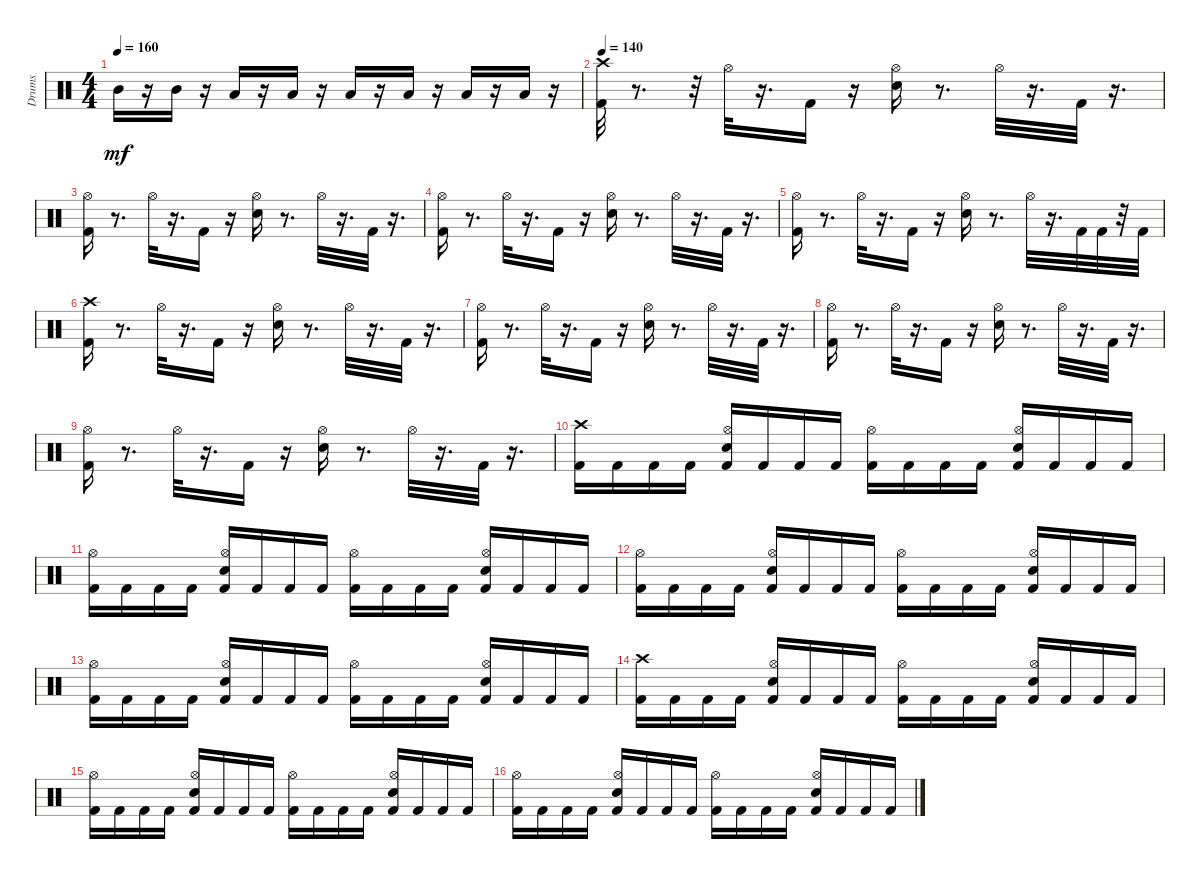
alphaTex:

\track ("Drums               " "Drums     ") {instrument percussion}
\staff {score}
\articulation defaults
\ts (4 4)
\tempo 160
\clef neutral
\ks c "Mid Tom (hit)".16{dy mf}
r.16 "Mid Tom (hit)".16 r.16 "Low Floor Tom (hit)".16 r.16 "Low Floor Tom (hit)".16 r.16 "Low Tom (hit)".16 r.16 "Low Tom (hit)".16 r.16 "Low Tom (hit)".16 r.16 "Low Floor Tom (hit)".16 r.16 |
\tempo 140
("Kick (hit) 2" "Crash high (hit)").32 r.8{d} r.32 "Hi-Hat (open)".32 r.16{d} "Kick (hit) 2".16 r.16 ("Hi-Hat (open)" "Snare (hit) 2").16 r.8{d} "Hi-Hat (open)".32 r.16{d} "Kick (hit) 2".32 r.16{d} |
("Kick (hit) 2" "Hi-Hat (open)").16 r.8{d} "Hi-Hat (open)".32 r.16{d} "Kick (hit) 2".16 r.16 ("Hi-Hat (open)" "Snare (hit) 2").16 r.8{d} "Hi-Hat (open)".32 r.16{d} "Kick (hit) 2".32 r.16{d} |
("Kick (hit) 2" "Hi-Hat (open)").16 r.8{d} "Hi-Hat (open)".32 r.16{d} "Kick (hit) 2".16 r.16 ("Hi-Hat (open)" "Snare (hit) 2").16 r.8{d} "Hi-Hat (open)".32 r.16{d} "Kick (hit) 2".32 r.16{d} |
("Kick (hit) 2" "Hi-Hat (open)").16 r.8{d} "Hi-Hat (open)".32 r.16{d} "Kick (hit) 2".16 r.16 ("Hi-Hat (open)" "Snare (hit) 2").16 r.8{d} "Hi-Hat (open)".32 r.16{d} "Kick (hit) 2".32 "Kick (hit) 2".32 r.32 "Kick (hit) 2".32 |
("Kick (hit) 2" "Crash high (hit)").16 r.8{d} "Hi-Hat (open)".32 r.16{d} "Kick (hit) 2".16 r.16 ("Hi-Hat (open)" "Snare (hit) 2").16 r.8{d} "Hi-Hat (open)".32 r.16{d} "Kick (hit) 2".32 r.16{d} |
("Kick (hit) 2" "Hi-Hat (open)").16 r.8{d} "Hi-Hat (open)".32 r.16{d} "Kick (hit) 2".16 r.16 ("Hi-Hat (open)" "Snare (hit) 2").16 r.8{d} "Hi-Hat (open)".32 r.16{d} "Kick (hit) 2".32 r.16{d} |
("Kick (hit) 2" "Hi-Hat (open)").16 r.8{d} "Hi-Hat (open)".32 r.16{d} "Kick (hit) 2".16 r.16 ("Hi-Hat (open)" "Snare (hit) 2").16 r.8{d} "Hi-Hat (open)".32 r.16{d} "Kick (hit) 2".32 r.16{d} |
("Kick (hit) 2" "Hi-Hat (open)").16 r.8{d} "Hi-Hat (open)".32 r.16{d} "Kick (hit) 2".16 r.16 ("Hi-Hat (open)" "Snare (hit) 2").16 r.8{d} "Hi-Hat (open)".32 r.16{d} "Kick (hit) 2".32 r.16{d} |
("Crash high (hit)" "Kick (hit) 2").16 "Kick (hit) 2".16 "Kick (hit) 2".16 "Kick (hit) 2".16 ("Kick (hit) 2" "Snare (hit) 2" "Hi-Hat (open)").16 "Kick (hit) 2".16 "Kick (hit) 2".16 "Kick (hit) 2".16 ("Kick (hit) 2" "Hi-Hat (open)").16 "Kick (hit) 2".16 "Kick (hit) 2".16 "Kick (hit) 2".16 ("Kick (hit) 2" "Snare (hit) 2" "Hi-Hat (open)").16 "Kick (hit) 2".16 "Kick (hit) 2".16 "Kick (hit) 2".16 |
("Kick (hit) 2" "Hi-Hat (open)").16 "Kick (hit) 2".16 "Kick (hit) 2".16 "Kick (hit) 2".16 ("Kick (hit) 2" "Snare (hit) 2" "Hi-Hat (open)").16 "Kick (hit) 2".16 "Kick (hit) 2".16 "Kick (hit) 2".16 ("Kick (hit) 2" "Hi-Hat (open)").16 "Kick (hit) 2".16 "Kick (hit) 2".16 "Kick (hit) 2".16 ("Kick (hit) 2" "Snare (hit) 2" "Hi-Hat (open)").16 "Kick (hit) 2".16 "Kick (hit) 2".16 "Kick (hit) 2".16 |
("Kick (hit) 2" "Hi-Hat (open)").16 "Kick (hit) 2".16 "Kick (hit) 2".16 "Kick (hit) 2".16 ("Kick (hit) 2" "Snare (hit) 2" "Hi-Hat (open)").16 "Kick (hit) 2".16 "Kick (hit) 2".16 "Kick (hit) 2".16 ("Kick (hit) 2" "Hi-Hat (open)").16 "Kick (hit) 2".16 "Kick (hit) 2".16 "Kick (hit) 2".16 ("Kick (hit) 2" "Snare (hit) 2" "Hi-Hat (open)").16 "Kick (hit) 2".16 "Kick (hit) 2".16 "Kick (hit) 2".16 |
("Kick (hit) 2" "Hi-Hat (open)").16 "Kick (hit) 2".16 "Kick (hit) 2".16 "Kick (hit) 2".16 ("Kick (hit) 2" "Snare (hit) 2" "Hi-Hat (open)").16 "Kick (hit) 2".16 "Kick (hit) 2".16 "Kick (hit) 2".16 ("Kick (hit) 2" "Hi-Hat (open)").16 "Kick (hit) 2".16 "Kick (hit) 2".16 "Kick (hit) 2".16 ("Kick (hit) 2" "Snare (hit) 2" "Hi-Hat (open)").16 "Kick (hit) 2".16 "Kick (hit) 2".16 "Kick (hit) 2".16 |
("Kick (hit) 2" "Crash high (hit)").16 "Kick (hit) 2".16 "Kick (hit) 2".16 "Kick (hit) 2".16 ("Kick (hit) 2" "Snare (hit) 2" "Hi-Hat (open)").16 "Kick (hit) 2".16 "Kick (hit) 2".16 "Kick (hit) 2".16 ("Kick (hit) 2" "Hi-Hat (open)").16 "Kick (hit) 2".16 "Kick (hit) 2".16 "Kick (hit) 2".16 ("Kick (hit) 2" "Snare (hit) 2" "Hi-Hat (open)").16 "Kick (hit) 2".16 "Kick (hit) 2".16 "Kick (hit) 2".16 |
("Kick (hit) 2" "Hi-Hat (open)").16 "Kick (hit) 2".16 "Kick (hit) 2".16 "Kick (hit) 2".16 ("Kick (hit) 2" "Snare (hit) 2" "Hi-Hat (open)").16 "Kick (hit) 2".16 "Kick (hit) 2".16 "Kick (hit) 2".16 ("Kick (hit) 2" "Hi-Hat (open)").16 "Kick (hit) 2".16 "Kick (hit) 2".16 "Kick (hit) 2".16 ("Kick (hit) 2" "Snare (hit) 2" "Hi-Hat (open)").16 "Kick (hit) 2".16 "Kick (hit) 2".16 "Kick (hit) 2".16 |
("Kick (hit) 2" "Hi-Hat (open)").16 "Kick (hit) 2".16 "Kick (hit) 2".16 "Kick (hit) 2".16 ("Kick (hit) 2" "Snare (hit) 2" "Hi-Hat (open)").16 "Kick (hit) 2".16 "Kick (hit) 2".16 "Kick (hit) 2".16 ("Kick (hit) 2" "Hi-Hat (open)").16 "Kick (hit) 2".16 "Kick (hit) 2".16 "Kick (hit) 2".16 ("Kick (hit) 2" "Snare (hit) 2" "Hi-Hat (open)").16 "Kick (hit) 2".16 "Kick (hit) 2".16 "Kick (hit) 2".16
